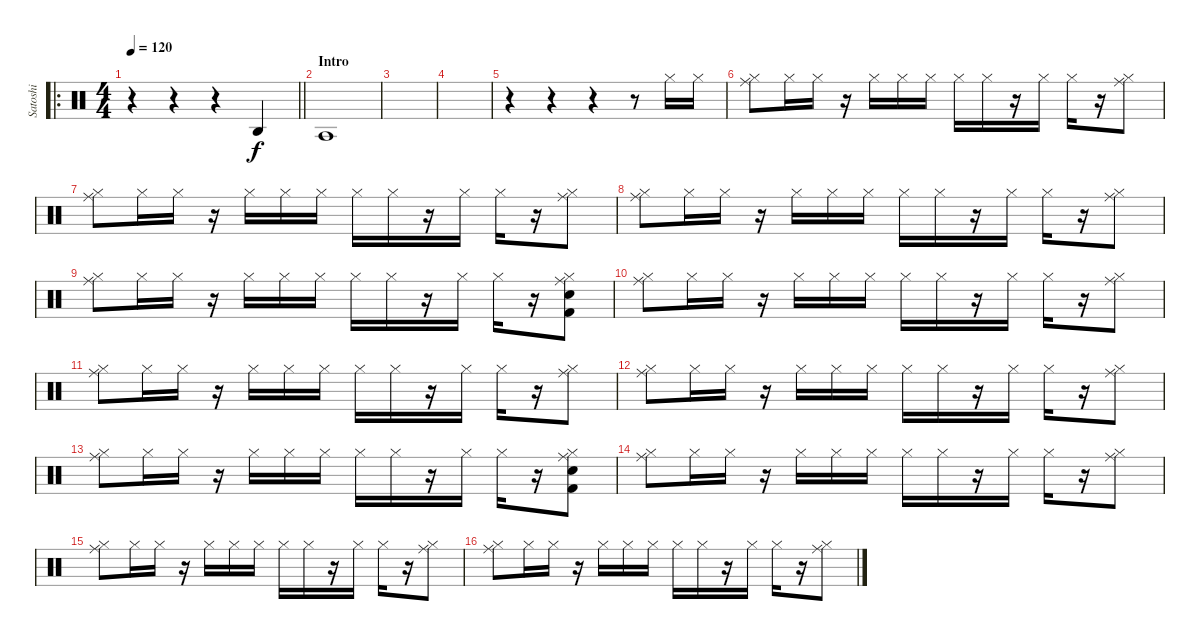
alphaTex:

\track ("Satoshi" "Satoshi") {instrument percussion}
\staff {score}
\articulation defaults
\ro
\ts (4 4)
\tempo 120
\clef neutral
\barLineRight lightlight
\ks c
r.4{dy f volume 9} r.4 r.4 "Agogo high (hit)".4 |
\section ("" "Intro")
"Agogo tow (hit)".1 |
|
|
r.4 r.4 r.4 r.8 "Hi-Hat (closed)".16 "Hi-Hat (closed)".16 |
("Ride (middle)" "Hi-Hat (closed)").8 "Hi-Hat (closed)".16 "Hi-Hat (closed)".16 r.16 "Hi-Hat (closed)".16 "Hi-Hat (closed)".16 "Hi-Hat (closed)".16 "Hi-Hat (closed)".16 "Hi-Hat (closed)".16 r.16 "Hi-Hat (closed)".16 "Hi-Hat (closed)".16 r.16 ("Ride (middle)" "Hi-Hat (closed)").8 |
("Ride (middle)" "Hi-Hat (closed)").8 "Hi-Hat (closed)".16 "Hi-Hat (closed)".16 r.16 "Hi-Hat (closed)".16 "Hi-Hat (closed)".16 "Hi-Hat (closed)".16 "Hi-Hat (closed)".16 "Hi-Hat (closed)".16 r.16 "Hi-Hat (closed)".16 "Hi-Hat (closed)".16 r.16 ("Ride (middle)" "Hi-Hat (closed)").8 |
("Ride (middle)" "Hi-Hat (closed)").8 "Hi-Hat (closed)".16 "Hi-Hat (closed)".16 r.16 "Hi-Hat (closed)".16 "Hi-Hat (closed)".16 "Hi-Hat (closed)".16 "Hi-Hat (closed)".16 "Hi-Hat (closed)".16 r.16 "Hi-Hat (closed)".16 "Hi-Hat (closed)".16 r.16 ("Ride (middle)" "Hi-Hat (closed)").8 |
("Ride (middle)" "Hi-Hat (closed)").8 "Hi-Hat (closed)".16 "Hi-Hat (closed)".16 r.16 "Hi-Hat (closed)".16 "Hi-Hat (closed)".16 "Hi-Hat (closed)".16 "Hi-Hat (closed)".16 "Hi-Hat (closed)".16 r.16 "Hi-Hat (closed)".16 "Hi-Hat (closed)".16 r.16 ("Ride (middle)" "Hi-Hat (closed)" "Electric Snare (hit)" "Kick (hit) 2").8 |
("Ride (middle)" "Hi-Hat (closed)").8 "Hi-Hat (closed)".16 "Hi-Hat (closed)".16 r.16 "Hi-Hat (closed)".16 "Hi-Hat (closed)".16 "Hi-Hat (closed)".16 "Hi-Hat (closed)".16 "Hi-Hat (closed)".16 r.16 "Hi-Hat (closed)".16 "Hi-Hat (closed)".16 r.16 ("Ride (middle)" "Hi-Hat (closed)").8 |
("Ride (middle)" "Hi-Hat (closed)").8 "Hi-Hat (closed)".16 "Hi-Hat (closed)".16 r.16 "Hi-Hat (closed)".16 "Hi-Hat (closed)".16 "Hi-Hat (closed)".16 "Hi-Hat (closed)".16 "Hi-Hat (closed)".16 r.16 "Hi-Hat (closed)".16 "Hi-Hat (closed)".16 r.16 ("Ride (middle)" "Hi-Hat (closed)").8 |
("Ride (middle)" "Hi-Hat (closed)").8 "Hi-Hat (closed)".16 "Hi-Hat (closed)".16 r.16 "Hi-Hat (closed)".16 "Hi-Hat (closed)".16 "Hi-Hat (closed)".16 "Hi-Hat (closed)".16 "Hi-Hat (closed)".16 r.16 "Hi-Hat (closed)".16 "Hi-Hat (closed)".16 r.16 ("Ride (middle)" "Hi-Hat (closed)").8 |
("Ride (middle)" "Hi-Hat (closed)").8 "Hi-Hat (closed)".16 "Hi-Hat (closed)".16 r.16 "Hi-Hat (closed)".16 "Hi-Hat (closed)".16 "Hi-Hat (closed)".16 "Hi-Hat (closed)".16 "Hi-Hat (closed)".16 r.16 "Hi-Hat (closed)".16 "Hi-Hat (closed)".16 r.16 ("Ride (middle)" "Hi-Hat (closed)" "Electric Snare (hit)" "Kick (hit) 2").8 |
("Ride (middle)" "Hi-Hat (closed)").8 "Hi-Hat (closed)".16 "Hi-Hat (closed)".16 r.16 "Hi-Hat (closed)".16 "Hi-Hat (closed)".16 "Hi-Hat (closed)".16 "Hi-Hat (closed)".16 "Hi-Hat (closed)".16 r.16 "Hi-Hat (closed)".16 "Hi-Hat (closed)".16 r.16 ("Ride (middle)" "Hi-Hat (closed)").8 |
("Ride (middle)" "Hi-Hat (closed)").8 "Hi-Hat (closed)".16 "Hi-Hat (closed)".16 r.16 "Hi-Hat (closed)".16 "Hi-Hat (closed)".16 "Hi-Hat (closed)".16 "Hi-Hat (closed)".16 "Hi-Hat (closed)".16 r.16 "Hi-Hat (closed)".16 "Hi-Hat (closed)".16 r.16 ("Ride (middle)" "Hi-Hat (closed)").8 |
("Ride (middle)" "Hi-Hat (closed)").8 "Hi-Hat (closed)".16 "Hi-Hat (closed)".16 r.16 "Hi-Hat (closed)".16 "Hi-Hat (closed)".16 "Hi-Hat (closed)".16 "Hi-Hat (closed)".16 "Hi-Hat (closed)".16 r.16 "Hi-Hat (closed)".16 "Hi-Hat (closed)".16 r.16 ("Ride (middle)" "Hi-Hat (closed)").8
